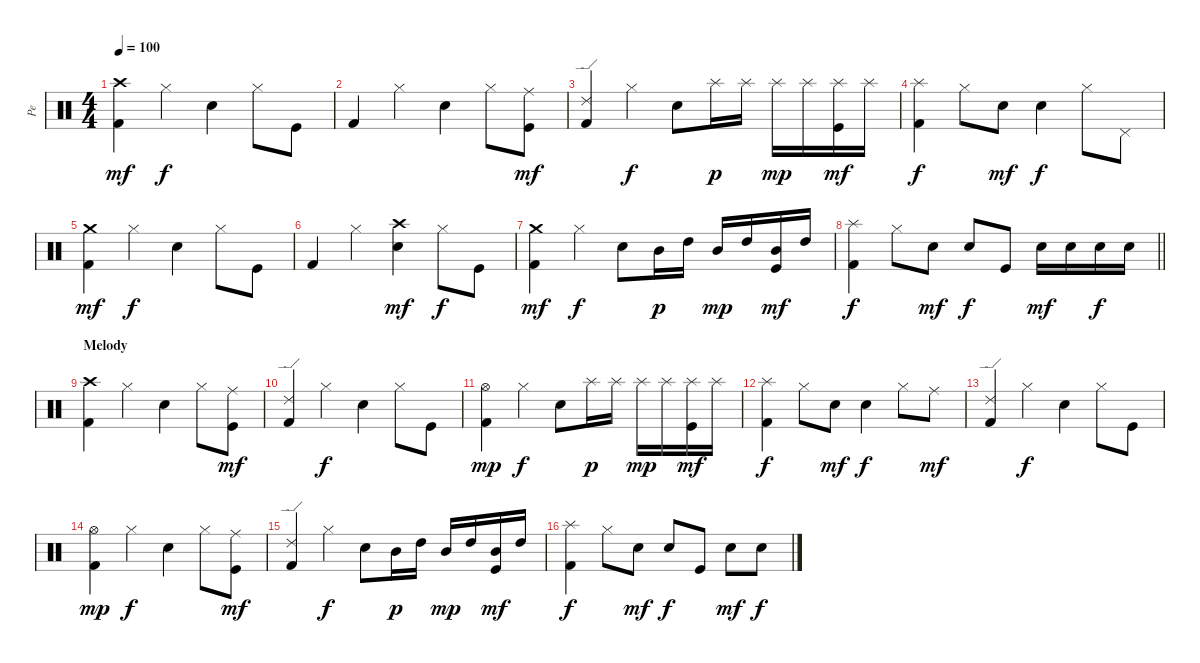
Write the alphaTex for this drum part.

\track ("Pe" "Pe") {instrument percussion}
\staff {score}
\articulation defaults
\ts (4 4)
\tempo 100
\clef neutral
\ks c
("Kick (hit) 2" "Crash high (hit)").4{dy mf} "Hi-Hat (closed)".4{dy f} "Electric Snare (hit)".4 "Hi-Hat (closed)".8 "Kick (hit)".8 |
"Kick (hit) 2".4 "Hi-Hat (closed)".4 "Electric Snare (hit)".4 "Hi-Hat (closed)".8 ("Kick (hit)" "Ride (middle)").8{dy mf} |
("Kick (hit) 2" "Ride (edge) 2").4 "Hi-Hat (closed)".4{dy f} "Electric Snare (hit)".8 "Splash (hit)".16{dy p} "Splash (hit)".16 "Splash (hit)".16{dy mp} "Splash (hit)".16 ("Kick (hit)" "Splash (hit)").16{dy mf} "Splash (hit)".16 |
("Kick (hit) 2" "Splash (hit)").4{dy f} "Hi-Hat (closed)".8 "Electric Snare (hit)".8{dy mf} "Electric Snare (hit)".4{dy f} "Hi-Hat (closed)".8 "Pedal Hi-Hat (hit)".8 |
("Kick (hit) 2" "Crash medium (hit)").4{dy mf} "Hi-Hat (closed)".4{dy f} "Electric Snare (hit)".4 "Hi-Hat (closed)".8 "Kick (hit)".8 |
"Kick (hit) 2".4 "Hi-Hat (closed)".4 ("Electric Snare (hit)" "Crash high (hit)").4{dy mf} "Hi-Hat (closed)".8{dy f} "Kick (hit)".8 |
("Kick (hit) 2" "Crash medium (hit)").4{dy mf} "Hi-Hat (closed)".4{dy f} "Electric Snare (hit)".8 "Mid Tom (hit)".16{dy p} "High Tom (hit)".16 "Mid Tom (hit)".16{dy mp} "High Tom (hit)".16 ("Kick (hit)" "Mid Tom (hit)").16{dy mf} "High Tom (hit)".16 |
\barLineRight lightlight
("Kick (hit) 2" "Splash (hit)").4{dy f} "Hi-Hat (closed)".8 "Electric Snare (hit)".8{dy mf} "Electric Snare (hit)".8{dy f} "Kick (hit)".8 "Electric Snare (hit)".16{dy mf} "Electric Snare (hit)".16 "Electric Snare (hit)".16{dy f} "Electric Snare (hit)".16 |
\section ("" "Melody")
("Kick (hit) 2" "Crash high (hit)").4 "Hi-Hat (closed)".4 "Electric Snare (hit)".4 "Hi-Hat (closed)".8 ("Kick (hit)" "Ride (middle)").8{dy mf} |
("Kick (hit) 2" "Ride (edge) 2").4 "Hi-Hat (closed)".4{dy f} "Electric Snare (hit)".4 "Hi-Hat (closed)".8 "Kick (hit)".8 |
("Kick (hit) 2" "Hi-Hat (open)").4{dy mp} "Hi-Hat (closed)".4{dy f} "Electric Snare (hit)".8 "Splash (hit)".16{dy p} "Splash (hit)".16 "Splash (hit)".16{dy mp} "Splash (hit)".16 ("Kick (hit)" "Splash (hit)").16{dy mf} "Splash (hit)".16 |
("Kick (hit) 2" "Splash (hit)").4{dy f} "Hi-Hat (closed)".8 "Electric Snare (hit)".8{dy mf} "Electric Snare (hit)".4{dy f} "Hi-Hat (closed)".8 "Ride (middle)".8{dy mf} |
("Kick (hit) 2" "Ride (edge) 2").4 "Hi-Hat (closed)".4{dy f} "Electric Snare (hit)".4 "Hi-Hat (closed)".8 "Kick (hit)".8 |
("Kick (hit) 2" "Hi-Hat (open)").4{dy mp} "Hi-Hat (closed)".4{dy f} "Electric Snare (hit)".4 "Hi-Hat (closed)".8 ("Kick (hit)" "Ride (middle)").8{dy mf} |
("Kick (hit) 2" "Ride (edge) 2").4 "Hi-Hat (closed)".4{dy f} "Electric Snare (hit)".8 "Mid Tom (hit)".16{dy p} "High Tom (hit)".16 "Mid Tom (hit)".16{dy mp} "High Tom (hit)".16 ("Kick (hit)" "Mid Tom (hit)").16{dy mf} "High Tom (hit)".16 |
("Kick (hit) 2" "Splash (hit)").4{dy f} "Hi-Hat (closed)".8 "Electric Snare (hit)".8{dy mf} "Electric Snare (hit)".8{dy f} "Kick (hit)".8 "Electric Snare (hit)".8{dy mf} "Electric Snare (hit)".8{dy f}
